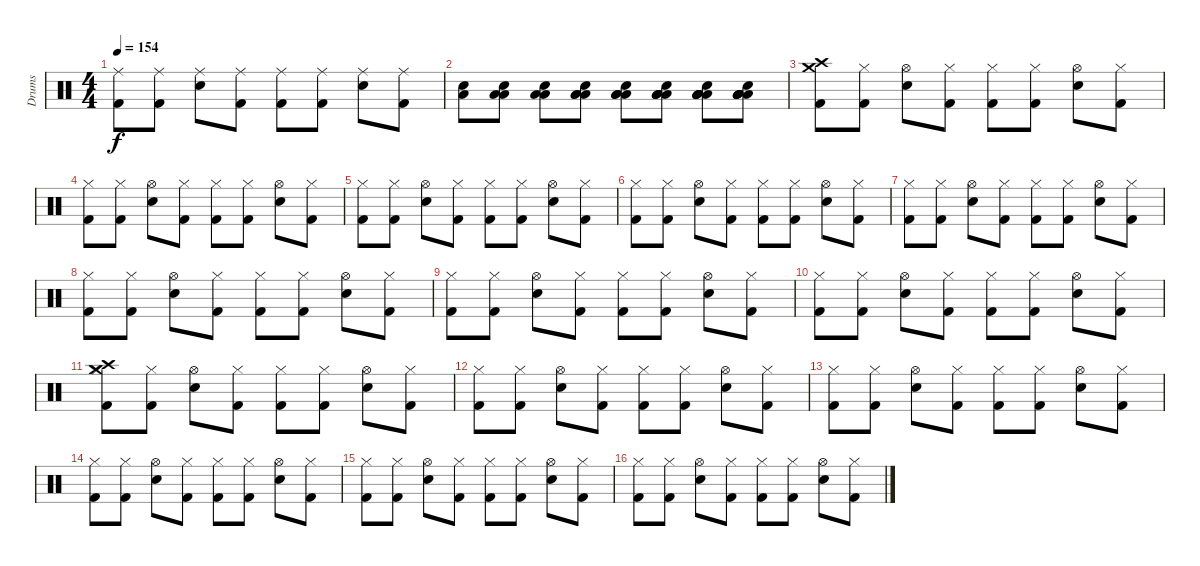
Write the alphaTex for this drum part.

\track ("Drums" "Drums") {instrument percussion}
\staff {score}
\articulation defaults
\ts (4 4)
\tempo 154
\clef neutral
\ks c
("Ride (middle)" "Kick (hit) 2").8{dy f} ("Ride (middle)" "Kick (hit) 2").8 ("Ride (middle)" "Snare (hit) 2").8 ("Ride (middle)" "Kick (hit) 2").8 ("Ride (middle)" "Kick (hit) 2").8 ("Ride (middle)" "Kick (hit) 2").8 ("Ride (middle)" "Snare (hit) 2").8 ("Ride (middle)" "Kick (hit) 2").8 |
("Low Floor Tom (hit)" "Snare (hit) 2").8 ("Low Tom (hit)" "Low Floor Tom (hit)" "Snare (hit) 2").8 ("Low Tom (hit)" "Low Floor Tom (hit)" "Snare (hit) 2").8 ("Low Floor Tom (hit)" "Low Tom (hit)" "Low Floor Tom (hit)" "Snare (hit) 2").8 ("Low Floor Tom (hit)" "Low Tom (hit)" "Low Floor Tom (hit)" "Snare (hit) 2").8 ("Low Floor Tom (hit)" "Low Floor Tom (hit)" "Low Tom (hit)" "Low Floor Tom (hit)" "Snare (hit) 2").8 ("Low Floor Tom (hit)" "Low Floor Tom (hit)" "Low Floor Tom (hit)" "Low Tom (hit)" "Low Floor Tom (hit)" "Snare (hit) 2").8 ("Low Floor Tom (hit)" "Low Floor Tom (hit)" "Low Tom (hit)" "Low Tom (hit)" "Low Floor Tom (hit)" "Snare (hit) 2").8 |
("Crash high (hit)" "Crash medium (hit)" "Kick (hit) 2").8 ("Hi-Hat (closed)" "Kick (hit) 2").8 ("Hi-Hat (open)" "Snare (hit) 2").8 ("Hi-Hat (closed)" "Kick (hit) 2").8 ("Hi-Hat (closed)" "Kick (hit) 2").8 ("Hi-Hat (closed)" "Kick (hit) 2").8 ("Hi-Hat (open)" "Snare (hit) 2").8 ("Hi-Hat (closed)" "Kick (hit) 2").8 |
("Hi-Hat (closed)" "Kick (hit) 2").8 ("Hi-Hat (closed)" "Kick (hit) 2").8 ("Hi-Hat (open)" "Snare (hit) 2").8 ("Hi-Hat (closed)" "Kick (hit) 2").8 ("Hi-Hat (closed)" "Kick (hit) 2").8 ("Hi-Hat (closed)" "Kick (hit) 2").8 ("Hi-Hat (open)" "Snare (hit) 2").8 ("Hi-Hat (closed)" "Kick (hit) 2").8 |
("Hi-Hat (closed)" "Kick (hit) 2").8 ("Hi-Hat (closed)" "Kick (hit) 2").8 ("Hi-Hat (open)" "Snare (hit) 2").8 ("Hi-Hat (closed)" "Kick (hit) 2").8 ("Hi-Hat (closed)" "Kick (hit) 2").8 ("Hi-Hat (closed)" "Kick (hit) 2").8 ("Hi-Hat (open)" "Snare (hit) 2").8 ("Hi-Hat (closed)" "Kick (hit) 2").8 |
("Hi-Hat (closed)" "Kick (hit) 2").8 ("Hi-Hat (closed)" "Kick (hit) 2").8 ("Hi-Hat (open)" "Snare (hit) 2").8 ("Hi-Hat (closed)" "Kick (hit) 2").8 ("Hi-Hat (closed)" "Kick (hit) 2").8 ("Hi-Hat (closed)" "Kick (hit) 2").8 ("Hi-Hat (open)" "Snare (hit) 2").8 ("Hi-Hat (closed)" "Kick (hit) 2").8 |
("Hi-Hat (closed)" "Kick (hit) 2").8 ("Hi-Hat (closed)" "Kick (hit) 2").8 ("Hi-Hat (open)" "Snare (hit) 2").8 ("Hi-Hat (closed)" "Kick (hit) 2").8 ("Hi-Hat (closed)" "Kick (hit) 2").8 ("Hi-Hat (closed)" "Kick (hit) 2").8 ("Hi-Hat (open)" "Snare (hit) 2").8 ("Hi-Hat (closed)" "Kick (hit) 2").8 |
("Hi-Hat (closed)" "Kick (hit) 2").8 ("Hi-Hat (closed)" "Kick (hit) 2").8 ("Hi-Hat (open)" "Snare (hit) 2").8 ("Hi-Hat (closed)" "Kick (hit) 2").8 ("Hi-Hat (closed)" "Kick (hit) 2").8 ("Hi-Hat (closed)" "Kick (hit) 2").8 ("Hi-Hat (open)" "Snare (hit) 2").8 ("Hi-Hat (closed)" "Kick (hit) 2").8 |
("Hi-Hat (closed)" "Kick (hit) 2").8 ("Hi-Hat (closed)" "Kick (hit) 2").8 ("Hi-Hat (open)" "Snare (hit) 2").8 ("Hi-Hat (closed)" "Kick (hit) 2").8 ("Hi-Hat (closed)" "Kick (hit) 2").8 ("Hi-Hat (closed)" "Kick (hit) 2").8 ("Hi-Hat (open)" "Snare (hit) 2").8 ("Hi-Hat (closed)" "Kick (hit) 2").8 |
("Hi-Hat (closed)" "Kick (hit) 2").8 ("Hi-Hat (closed)" "Kick (hit) 2").8 ("Hi-Hat (open)" "Snare (hit) 2").8 ("Hi-Hat (closed)" "Kick (hit) 2").8 ("Hi-Hat (closed)" "Kick (hit) 2").8 ("Hi-Hat (closed)" "Kick (hit) 2").8 ("Hi-Hat (open)" "Snare (hit) 2").8 ("Hi-Hat (closed)" "Kick (hit) 2").8 |
("Crash high (hit)" "Crash medium (hit)" "Hi-Hat (closed)" "Kick (hit) 2").8 ("Hi-Hat (closed)" "Kick (hit) 2").8 ("Hi-Hat (open)" "Snare (hit) 2").8 ("Hi-Hat (closed)" "Kick (hit) 2").8 ("Hi-Hat (closed)" "Kick (hit) 2").8 ("Hi-Hat (closed)" "Kick (hit) 2").8 ("Hi-Hat (open)" "Snare (hit) 2").8 ("Hi-Hat (closed)" "Kick (hit) 2").8 |
("Hi-Hat (closed)" "Kick (hit) 2").8 ("Hi-Hat (closed)" "Kick (hit) 2").8 ("Hi-Hat (open)" "Snare (hit) 2").8 ("Hi-Hat (closed)" "Kick (hit) 2").8 ("Hi-Hat (closed)" "Kick (hit) 2").8 ("Hi-Hat (closed)" "Kick (hit) 2").8 ("Hi-Hat (open)" "Snare (hit) 2").8 ("Hi-Hat (closed)" "Kick (hit) 2").8 |
("Hi-Hat (closed)" "Kick (hit) 2").8 ("Hi-Hat (closed)" "Kick (hit) 2").8 ("Hi-Hat (open)" "Snare (hit) 2").8 ("Hi-Hat (closed)" "Kick (hit) 2").8 ("Hi-Hat (closed)" "Kick (hit) 2").8 ("Hi-Hat (closed)" "Kick (hit) 2").8 ("Hi-Hat (open)" "Snare (hit) 2").8 ("Hi-Hat (closed)" "Kick (hit) 2").8 |
("Hi-Hat (closed)" "Kick (hit) 2").8 ("Hi-Hat (closed)" "Kick (hit) 2").8 ("Hi-Hat (open)" "Snare (hit) 2").8 ("Hi-Hat (closed)" "Kick (hit) 2").8 ("Hi-Hat (closed)" "Kick (hit) 2").8 ("Hi-Hat (closed)" "Kick (hit) 2").8 ("Hi-Hat (open)" "Snare (hit) 2").8 ("Hi-Hat (closed)" "Kick (hit) 2").8 |
("Hi-Hat (closed)" "Kick (hit) 2").8 ("Hi-Hat (closed)" "Kick (hit) 2").8 ("Hi-Hat (open)" "Snare (hit) 2").8 ("Hi-Hat (closed)" "Kick (hit) 2").8 ("Hi-Hat (closed)" "Kick (hit) 2").8 ("Hi-Hat (closed)" "Kick (hit) 2").8 ("Hi-Hat (open)" "Snare (hit) 2").8 ("Hi-Hat (closed)" "Kick (hit) 2").8 |
("Hi-Hat (closed)" "Kick (hit) 2").8 ("Hi-Hat (closed)" "Kick (hit) 2").8 ("Hi-Hat (open)" "Snare (hit) 2").8 ("Hi-Hat (closed)" "Kick (hit) 2").8 ("Hi-Hat (closed)" "Kick (hit) 2").8 ("Hi-Hat (closed)" "Kick (hit) 2").8 ("Hi-Hat (open)" "Snare (hit) 2").8 ("Hi-Hat (closed)" "Kick (hit) 2").8
